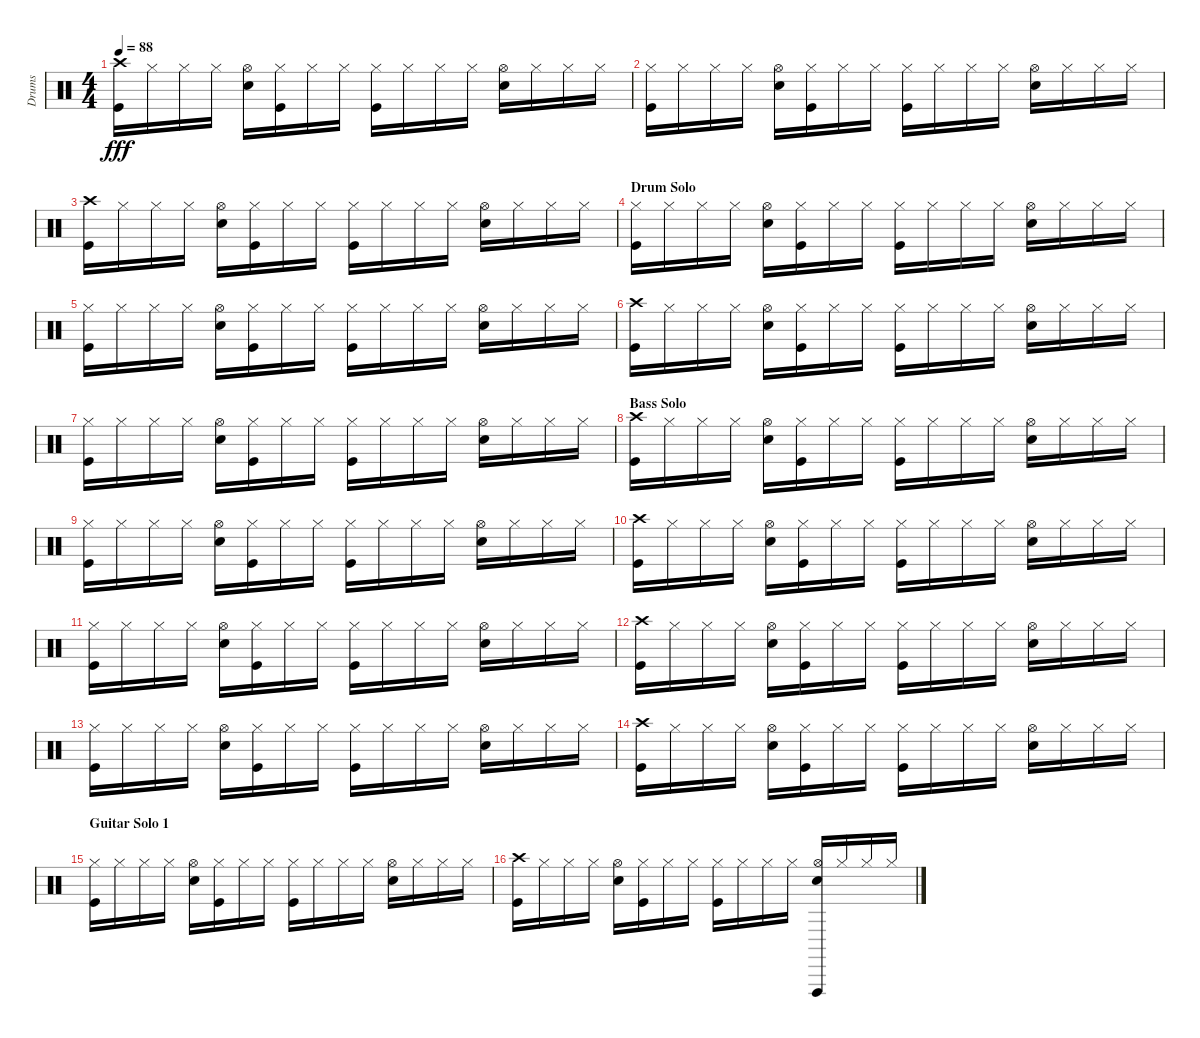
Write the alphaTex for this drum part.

\track ("Drums" "Drums") {instrument percussion}
\staff {score}
\articulation defaults
\ts (4 4)
\tempo 88
\clef neutral
\ks c
("Crash high (hit)" "Kick (hit)").16{dy fff} "Hi-Hat (closed)".16 "Hi-Hat (closed)".16 "Hi-Hat (closed)".16 ("Hi-Hat (open)" "Snare (hit) 2").16 ("Hi-Hat (closed)" "Kick (hit)").16 "Hi-Hat (closed)".16 "Hi-Hat (closed)".16 ("Hi-Hat (closed)" "Kick (hit)").16 "Hi-Hat (closed)".16 "Hi-Hat (closed)".16 "Hi-Hat (closed)".16 ("Hi-Hat (open)" "Snare (hit) 2").16 "Hi-Hat (closed)".16 "Hi-Hat (closed)".16 "Hi-Hat (closed)".16 |
("Hi-Hat (closed)" "Kick (hit)").16 "Hi-Hat (closed)".16 "Hi-Hat (closed)".16 "Hi-Hat (closed)".16 ("Hi-Hat (open)" "Snare (hit) 2").16 ("Hi-Hat (closed)" "Kick (hit)").16 "Hi-Hat (closed)".16 "Hi-Hat (closed)".16 ("Hi-Hat (closed)" "Kick (hit)").16 "Hi-Hat (closed)".16 "Hi-Hat (closed)".16 "Hi-Hat (closed)".16 ("Hi-Hat (open)" "Snare (hit) 2").16 "Hi-Hat (closed)".16 "Hi-Hat (closed)".16 "Hi-Hat (closed)".16 |
("Crash high (hit)" "Kick (hit)").16 "Hi-Hat (closed)".16 "Hi-Hat (closed)".16 "Hi-Hat (closed)".16 ("Hi-Hat (open)" "Snare (hit) 2").16 ("Hi-Hat (closed)" "Kick (hit)").16 "Hi-Hat (closed)".16 "Hi-Hat (closed)".16 ("Hi-Hat (closed)" "Kick (hit)").16 "Hi-Hat (closed)".16 "Hi-Hat (closed)".16 "Hi-Hat (closed)".16 ("Hi-Hat (open)" "Snare (hit) 2").16 "Hi-Hat (closed)".16 "Hi-Hat (closed)".16 "Hi-Hat (closed)".16 |
\section ("" "Drum Solo")
("Hi-Hat (closed)" "Kick (hit)").16 "Hi-Hat (closed)".16 "Hi-Hat (closed)".16 "Hi-Hat (closed)".16 ("Hi-Hat (open)" "Snare (hit) 2").16 ("Hi-Hat (closed)" "Kick (hit)").16 "Hi-Hat (closed)".16 "Hi-Hat (closed)".16 ("Hi-Hat (closed)" "Kick (hit)").16 "Hi-Hat (closed)".16 "Hi-Hat (closed)".16 "Hi-Hat (closed)".16 ("Hi-Hat (open)" "Snare (hit) 2").16 "Hi-Hat (closed)".16 "Hi-Hat (closed)".16 "Hi-Hat (closed)".16 |
("Hi-Hat (closed)" "Kick (hit)").16 "Hi-Hat (closed)".16 "Hi-Hat (closed)".16 "Hi-Hat (closed)".16 ("Hi-Hat (open)" "Snare (hit) 2").16 ("Hi-Hat (closed)" "Kick (hit)").16 "Hi-Hat (closed)".16 "Hi-Hat (closed)".16 ("Hi-Hat (closed)" "Kick (hit)").16 "Hi-Hat (closed)".16 "Hi-Hat (closed)".16 "Hi-Hat (closed)".16 ("Hi-Hat (open)" "Snare (hit) 2").16 "Hi-Hat (closed)".16 "Hi-Hat (closed)".16 "Hi-Hat (closed)".16 |
("Crash high (hit)" "Kick (hit)").16 "Hi-Hat (closed)".16 "Hi-Hat (closed)".16 "Hi-Hat (closed)".16 ("Hi-Hat (open)" "Snare (hit) 2").16 ("Hi-Hat (closed)" "Kick (hit)").16 "Hi-Hat (closed)".16 "Hi-Hat (closed)".16 ("Hi-Hat (closed)" "Kick (hit)").16 "Hi-Hat (closed)".16 "Hi-Hat (closed)".16 "Hi-Hat (closed)".16 ("Hi-Hat (open)" "Snare (hit) 2").16 "Hi-Hat (closed)".16 "Hi-Hat (closed)".16 "Hi-Hat (closed)".16 |
("Hi-Hat (closed)" "Kick (hit)").16 "Hi-Hat (closed)".16 "Hi-Hat (closed)".16 "Hi-Hat (closed)".16 ("Hi-Hat (open)" "Snare (hit) 2").16 ("Hi-Hat (closed)" "Kick (hit)").16 "Hi-Hat (closed)".16 "Hi-Hat (closed)".16 ("Hi-Hat (closed)" "Kick (hit)").16 "Hi-Hat (closed)".16 "Hi-Hat (closed)".16 "Hi-Hat (closed)".16 ("Hi-Hat (open)" "Snare (hit) 2").16 "Hi-Hat (closed)".16 "Hi-Hat (closed)".16 "Hi-Hat (closed)".16 |
\section ("" "Bass Solo")
("Crash high (hit)" "Kick (hit)").16 "Hi-Hat (closed)".16 "Hi-Hat (closed)".16 "Hi-Hat (closed)".16 ("Hi-Hat (open)" "Snare (hit) 2").16 ("Hi-Hat (closed)" "Kick (hit)").16 "Hi-Hat (closed)".16 "Hi-Hat (closed)".16 ("Hi-Hat (closed)" "Kick (hit)").16 "Hi-Hat (closed)".16 "Hi-Hat (closed)".16 "Hi-Hat (closed)".16 ("Hi-Hat (open)" "Snare (hit) 2").16 "Hi-Hat (closed)".16 "Hi-Hat (closed)".16 "Hi-Hat (closed)".16 |
("Hi-Hat (closed)" "Kick (hit)").16 "Hi-Hat (closed)".16 "Hi-Hat (closed)".16 "Hi-Hat (closed)".16 ("Hi-Hat (open)" "Snare (hit) 2").16 ("Hi-Hat (closed)" "Kick (hit)").16 "Hi-Hat (closed)".16 "Hi-Hat (closed)".16 ("Hi-Hat (closed)" "Kick (hit)").16 "Hi-Hat (closed)".16 "Hi-Hat (closed)".16 "Hi-Hat (closed)".16 ("Hi-Hat (open)" "Snare (hit) 2").16 "Hi-Hat (closed)".16 "Hi-Hat (closed)".16 "Hi-Hat (closed)".16 |
("Crash high (hit)" "Kick (hit)").16 "Hi-Hat (closed)".16 "Hi-Hat (closed)".16 "Hi-Hat (closed)".16 ("Hi-Hat (open)" "Snare (hit) 2").16 ("Hi-Hat (closed)" "Kick (hit)").16 "Hi-Hat (closed)".16 "Hi-Hat (closed)".16 ("Hi-Hat (closed)" "Kick (hit)").16 "Hi-Hat (closed)".16 "Hi-Hat (closed)".16 "Hi-Hat (closed)".16 ("Hi-Hat (open)" "Snare (hit) 2").16 "Hi-Hat (closed)".16 "Hi-Hat (closed)".16 "Hi-Hat (closed)".16 |
("Hi-Hat (closed)" "Kick (hit)").16 "Hi-Hat (closed)".16 "Hi-Hat (closed)".16 "Hi-Hat (closed)".16 ("Hi-Hat (open)" "Snare (hit) 2").16 ("Hi-Hat (closed)" "Kick (hit)").16 "Hi-Hat (closed)".16 "Hi-Hat (closed)".16 ("Hi-Hat (closed)" "Kick (hit)").16 "Hi-Hat (closed)".16 "Hi-Hat (closed)".16 "Hi-Hat (closed)".16 ("Hi-Hat (open)" "Snare (hit) 2").16 "Hi-Hat (closed)".16 "Hi-Hat (closed)".16 "Hi-Hat (closed)".16 |
("Crash high (hit)" "Kick (hit)").16 "Hi-Hat (closed)".16 "Hi-Hat (closed)".16 "Hi-Hat (closed)".16 ("Hi-Hat (open)" "Snare (hit) 2").16 ("Hi-Hat (closed)" "Kick (hit)").16 "Hi-Hat (closed)".16 "Hi-Hat (closed)".16 ("Hi-Hat (closed)" "Kick (hit)").16 "Hi-Hat (closed)".16 "Hi-Hat (closed)".16 "Hi-Hat (closed)".16 ("Hi-Hat (open)" "Snare (hit) 2").16 "Hi-Hat (closed)".16 "Hi-Hat (closed)".16 "Hi-Hat (closed)".16 |
("Hi-Hat (closed)" "Kick (hit)").16 "Hi-Hat (closed)".16 "Hi-Hat (closed)".16 "Hi-Hat (closed)".16 ("Hi-Hat (open)" "Snare (hit) 2").16 ("Hi-Hat (closed)" "Kick (hit)").16 "Hi-Hat (closed)".16 "Hi-Hat (closed)".16 ("Hi-Hat (closed)" "Kick (hit)").16 "Hi-Hat (closed)".16 "Hi-Hat (closed)".16 "Hi-Hat (closed)".16 ("Hi-Hat (open)" "Snare (hit) 2").16 "Hi-Hat (closed)".16 "Hi-Hat (closed)".16 "Hi-Hat (closed)".16 |
("Crash high (hit)" "Kick (hit)").16 "Hi-Hat (closed)".16 "Hi-Hat (closed)".16 "Hi-Hat (closed)".16 ("Hi-Hat (open)" "Snare (hit) 2").16 ("Hi-Hat (closed)" "Kick (hit)").16 "Hi-Hat (closed)".16 "Hi-Hat (closed)".16 ("Hi-Hat (closed)" "Kick (hit)").16 "Hi-Hat (closed)".16 "Hi-Hat (closed)".16 "Hi-Hat (closed)".16 ("Hi-Hat (open)" "Snare (hit) 2").16 "Hi-Hat (closed)".16 "Hi-Hat (closed)".16 "Hi-Hat (closed)".16 |
\section ("" "Guitar Solo 1")
("Hi-Hat (closed)" "Kick (hit)").16 "Hi-Hat (closed)".16 "Hi-Hat (closed)".16 "Hi-Hat (closed)".16 ("Hi-Hat (open)" "Snare (hit) 2").16 ("Hi-Hat (closed)" "Kick (hit)").16 "Hi-Hat (closed)".16 "Hi-Hat (closed)".16 ("Hi-Hat (closed)" "Kick (hit)").16 "Hi-Hat (closed)".16 "Hi-Hat (closed)".16 "Hi-Hat (closed)".16 ("Hi-Hat (open)" "Snare (hit) 2").16 "Hi-Hat (closed)".16 "Hi-Hat (closed)".16 "Hi-Hat (closed)".16 |
("Crash high (hit)" "Kick (hit)").16 "Hi-Hat (closed)".16 "Hi-Hat (closed)".16 "Hi-Hat (closed)".16 ("Hi-Hat (open)" "Snare (hit) 2").16 ("Hi-Hat (closed)" "Kick (hit)").16 "Hi-Hat (closed)".16 "Hi-Hat (closed)".16 ("Hi-Hat (closed)" "Kick (hit)").16 "Hi-Hat (closed)".16 "Hi-Hat (closed)".16 "Hi-Hat (closed)".16 ("Hi-Hat (open)" "Vibraslap (hit)" "Snare (hit) 2").16 "Hi-Hat (closed)".16 "Hi-Hat (closed)".16 "Hi-Hat (closed)".16
